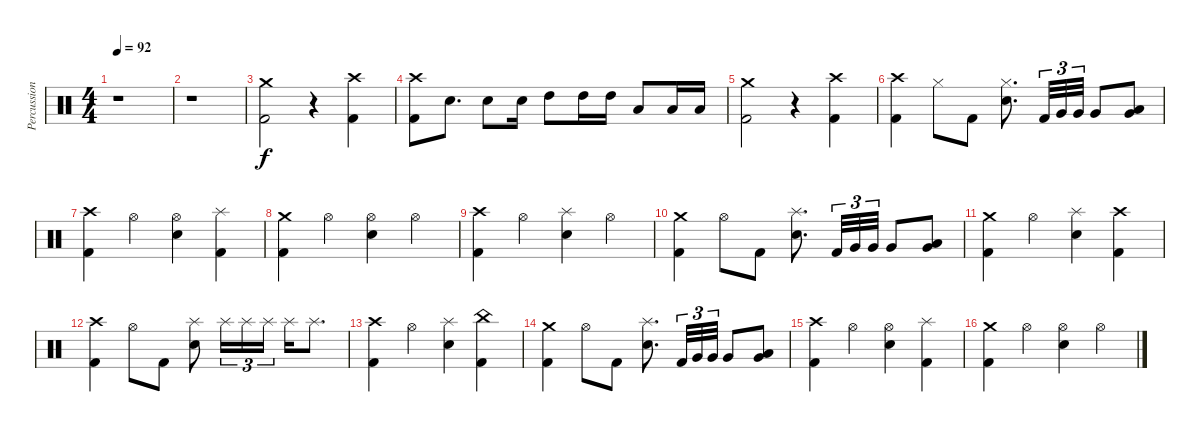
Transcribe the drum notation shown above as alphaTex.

\track ("Percussion" "Percussion") {instrument percussion}
\staff {score}
\articulation defaults
\ts (4 4)
\tempo 92
\clef neutral
\ks c
r.1{dy f} |
r.1 |
("Crash medium (hit)" "Kick (hit) 2").2 r.4 ("Crash high (hit)" "Kick (hit) 2").4 |
("Crash high (hit)" "Kick (hit) 2").8 "Electric Snare (hit)".8{d} "Electric Snare (hit)".8 "Electric Snare (hit)".16 "High Tom (hit)".8 "High Tom (hit)".16 "High Tom (hit)".16 "Low Tom (hit)".8 "Low Tom (hit)".16 "Low Tom (hit)".16 |
("Crash medium (hit)" "Kick (hit) 2").2 r.4 ("Crash high (hit)" "Kick (hit) 2").4 |
("Crash high (hit)" "Kick (hit) 2").4 "Hi-Hat (closed)".8 "Kick (hit) 2".8 ("Hi-Hat (closed)" "Electric Snare (hit)").8{d} "Kick (hit) 2".32{tu (3 2)} "Very Low Tom (hit)".32{tu (3 2)} "Very Low Tom (hit)".32{tu (3 2)} "Very Low Tom (hit)".8 ("Low Tom (hit)" "Very Low Tom (hit)").8 |
("Crash high (hit)" "Kick (hit) 2").4 "Hi-Hat (open)".4 ("Hi-Hat (open)" "Electric Snare (hit)").4 ("Splash (hit)" "Kick (hit) 2").4 |
("Crash medium (hit)" "Kick (hit) 2").4 "Hi-Hat (open)".4 ("Hi-Hat (open)" "Electric Snare (hit)").4 "Hi-Hat (open)".4 |
("Crash high (hit)" "Kick (hit) 2").4 "Hi-Hat (open)".4 ("Splash (hit)" "Electric Snare (hit)").4 "Hi-Hat (open)".4 |
("Crash medium (hit)" "Kick (hit) 2").4 "Hi-Hat (open)".8 "Kick (hit) 2".8 ("Splash (hit)" "Electric Snare (hit)").8{d} "Kick (hit) 2".32{tu (3 2)} "Very Low Tom (hit)".32{tu (3 2)} "Very Low Tom (hit)".32{tu (3 2)} "Very Low Tom (hit)".8 ("Low Tom (hit)" "Very Low Tom (hit)").8 |
("Crash medium (hit)" "Kick (hit) 2").4 "Hi-Hat (open)".4 ("Splash (hit)" "Electric Snare (hit)").4 ("Kick (hit) 2" "Crash high (hit)").4 |
("Crash high (hit)" "Kick (hit) 2").4 "Hi-Hat (open)".8 "Kick (hit) 2".8 ("Splash (hit)" "Electric Snare (hit)").8 "Splash (hit)".16{tu (3 2)} "Splash (hit)".16{tu (3 2)} "Splash (hit)".16{tu (3 2)} "Splash (hit)".16 "Splash (hit)".8{d} |
("Crash high (hit)" "Kick (hit) 2").4 "Hi-Hat (open)".4 ("Splash (hit)" "Electric Snare (hit)").4 ("China (hit)" "Kick (hit) 2").4 |
("Crash medium (hit)" "Kick (hit) 2").4 "Hi-Hat (open)".8 "Kick (hit) 2".8 ("Splash (hit)" "Electric Snare (hit)").8{d} "Kick (hit) 2".32{tu (3 2)} "Very Low Tom (hit)".32{tu (3 2)} "Very Low Tom (hit)".32{tu (3 2)} "Very Low Tom (hit)".8 ("Low Tom (hit)" "Very Low Tom (hit)").8 |
("Crash high (hit)" "Kick (hit) 2").4 "Hi-Hat (open)".4 ("Hi-Hat (open)" "Electric Snare (hit)").4 ("Splash (hit)" "Kick (hit) 2").4 |
("Crash medium (hit)" "Kick (hit) 2").4 "Hi-Hat (open)".4 ("Hi-Hat (open)" "Electric Snare (hit)").4 "Hi-Hat (open)".4
